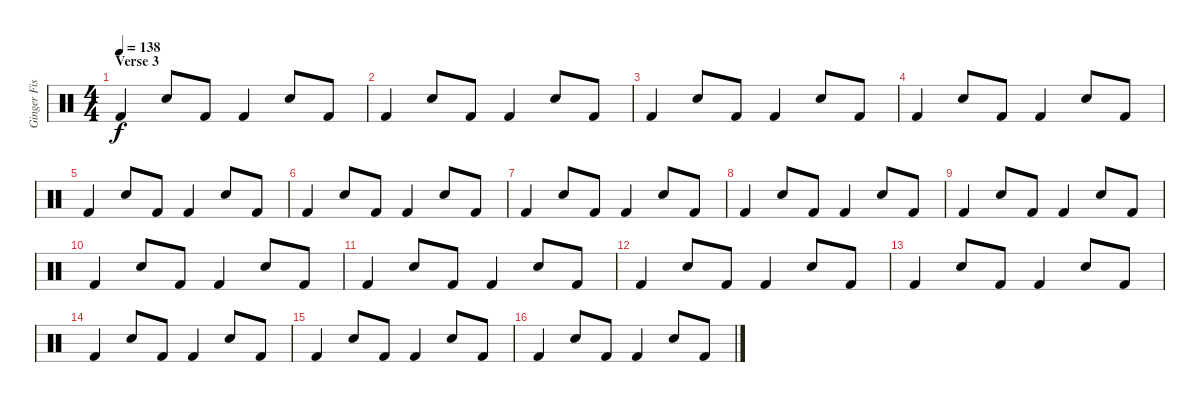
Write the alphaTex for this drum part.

\track ("Ginger Fish [Drums]" "Ginger Fis") {instrument percussion}
\staff {score}
\articulation defaults
\ts (4 4)
\section ("" "Verse 3")
\tempo 138
\clef neutral
\ks c "Kick (hit) 2".4{dy f} "Snare (hit) 2".8 "Kick (hit) 2".8 "Kick (hit) 2".4 "Snare (hit) 2".8 "Kick (hit) 2".8
|
"Kick (hit) 2".4 "Snare (hit) 2".8 "Kick (hit) 2".8 "Kick (hit) 2".4 "Snare (hit) 2".8 "Kick (hit) 2".8 |
"Kick (hit) 2".4 "Snare (hit) 2".8 "Kick (hit) 2".8 "Kick (hit) 2".4 "Snare (hit) 2".8 "Kick (hit) 2".8 |
"Kick (hit) 2".4 "Snare (hit) 2".8 "Kick (hit) 2".8 "Kick (hit) 2".4 "Snare (hit) 2".8 "Kick (hit) 2".8 |
"Kick (hit) 2".4 "Snare (hit) 2".8 "Kick (hit) 2".8 "Kick (hit) 2".4 "Snare (hit) 2".8 "Kick (hit) 2".8 |
"Kick (hit) 2".4 "Snare (hit) 2".8 "Kick (hit) 2".8 "Kick (hit) 2".4 "Snare (hit) 2".8 "Kick (hit) 2".8 |
"Kick (hit) 2".4 "Snare (hit) 2".8 "Kick (hit) 2".8 "Kick (hit) 2".4 "Snare (hit) 2".8 "Kick (hit) 2".8 |
"Kick (hit) 2".4 "Snare (hit) 2".8 "Kick (hit) 2".8 "Kick (hit) 2".4 "Snare (hit) 2".8 "Kick (hit) 2".8 |
"Kick (hit) 2".4 "Snare (hit) 2".8 "Kick (hit) 2".8 "Kick (hit) 2".4 "Snare (hit) 2".8 "Kick (hit) 2".8 |
"Kick (hit) 2".4 "Snare (hit) 2".8 "Kick (hit) 2".8 "Kick (hit) 2".4 "Snare (hit) 2".8 "Kick (hit) 2".8 |
"Kick (hit) 2".4 "Snare (hit) 2".8 "Kick (hit) 2".8 "Kick (hit) 2".4 "Snare (hit) 2".8 "Kick (hit) 2".8 |
"Kick (hit) 2".4 "Snare (hit) 2".8 "Kick (hit) 2".8 "Kick (hit) 2".4 "Snare (hit) 2".8 "Kick (hit) 2".8 |
"Kick (hit) 2".4 "Snare (hit) 2".8 "Kick (hit) 2".8 "Kick (hit) 2".4 "Snare (hit) 2".8 "Kick (hit) 2".8 |
"Kick (hit) 2".4 "Snare (hit) 2".8 "Kick (hit) 2".8 "Kick (hit) 2".4 "Snare (hit) 2".8 "Kick (hit) 2".8 |
"Kick (hit) 2".4 "Snare (hit) 2".8 "Kick (hit) 2".8 "Kick (hit) 2".4 "Snare (hit) 2".8 "Kick (hit) 2".8 |
"Kick (hit) 2".4 "Snare (hit) 2".8 "Kick (hit) 2".8 "Kick (hit) 2".4 "Snare (hit) 2".8 "Kick (hit) 2".8
